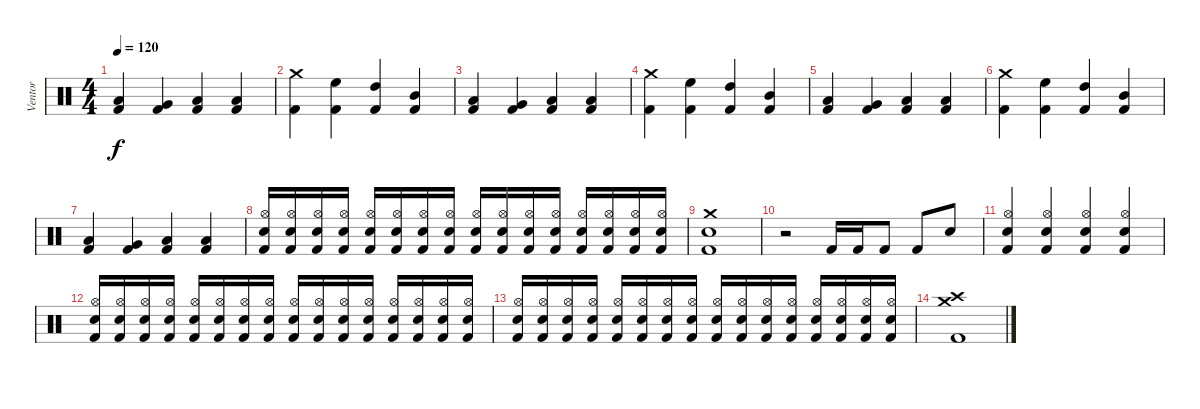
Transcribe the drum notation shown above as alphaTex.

\track ("Ventor" "Ventor") {instrument percussion}
\staff {score}
\articulation defaults
\ts (4 4)
\tempo 120
\clef neutral
\ks c
("Low Tom (hit)" "Kick (hit) 2").4{dy f} ("Very Low Tom (hit)" "Kick (hit) 2").4 ("Low Floor Tom (hit)" "Kick (hit) 2").4 ("Low Floor Tom (hit)" "Kick (hit) 2").4 |
("Crash medium (hit)" "Kick (hit) 2").4 ("High Floor Tom (hit)" "Kick (hit) 2").4 ("High Tom (hit)" "Kick (hit) 2").4 ("Mid Tom (hit)" "Kick (hit) 2").4 |
("Low Tom (hit)" "Kick (hit) 2").4 ("Very Low Tom (hit)" "Kick (hit) 2").4 ("Low Floor Tom (hit)" "Kick (hit) 2").4 ("Low Floor Tom (hit)" "Kick (hit) 2").4 |
("Crash medium (hit)" "Kick (hit) 2").4 ("High Floor Tom (hit)" "Kick (hit) 2").4 ("High Tom (hit)" "Kick (hit) 2").4 ("Mid Tom (hit)" "Kick (hit) 2").4 |
("Low Tom (hit)" "Kick (hit) 2").4 ("Very Low Tom (hit)" "Kick (hit) 2").4 ("Low Floor Tom (hit)" "Kick (hit) 2").4 ("Low Floor Tom (hit)" "Kick (hit) 2").4 |
("Crash medium (hit)" "Kick (hit) 2").4 ("High Floor Tom (hit)" "Kick (hit) 2").4 ("High Tom (hit)" "Kick (hit) 2").4 ("Mid Tom (hit)" "Kick (hit) 2").4 |
("Low Tom (hit)" "Kick (hit) 2").4 ("Very Low Tom (hit)" "Kick (hit) 2").4 ("Low Floor Tom (hit)" "Kick (hit) 2").4 ("Low Floor Tom (hit)" "Kick (hit) 2").4 |
("Hi-Hat (open)" "Snare (hit) 2" "Kick (hit) 2").16 ("Hi-Hat (open)" "Snare (hit) 2" "Kick (hit) 2").16 ("Hi-Hat (open)" "Snare (hit) 2" "Kick (hit) 2").16 ("Hi-Hat (open)" "Snare (hit) 2" "Kick (hit) 2").16 ("Hi-Hat (open)" "Snare (hit) 2" "Kick (hit) 2").16 ("Hi-Hat (open)" "Snare (hit) 2" "Kick (hit) 2").16 ("Hi-Hat (open)" "Snare (hit) 2" "Kick (hit) 2").16 ("Hi-Hat (open)" "Snare (hit) 2" "Kick (hit) 2").16 ("Hi-Hat (open)" "Snare (hit) 2" "Kick (hit) 2").16 ("Hi-Hat (open)" "Snare (hit) 2" "Kick (hit) 2").16 ("Hi-Hat (open)" "Snare (hit) 2" "Kick (hit) 2").16 ("Hi-Hat (open)" "Snare (hit) 2" "Kick (hit) 2").16 ("Hi-Hat (open)" "Snare (hit) 2" "Kick (hit) 2").16 ("Hi-Hat (open)" "Snare (hit) 2" "Kick (hit) 2").16 ("Hi-Hat (open)" "Snare (hit) 2" "Kick (hit) 2").16 ("Hi-Hat (open)" "Snare (hit) 2" "Kick (hit) 2").16 |
("Crash medium (hit)" "Snare (hit) 2" "Kick (hit) 2").1 |
r.2 "Kick (hit) 2".16 "Kick (hit) 2".16 "Kick (hit) 2".8 "Kick (hit) 2".8 "Snare (hit) 2".8 |
("Hi-Hat (open)" "Snare (hit) 2" "Kick (hit) 2").4 ("Hi-Hat (open)" "Snare (hit) 2" "Kick (hit) 2").4 ("Hi-Hat (open)" "Snare (hit) 2" "Kick (hit) 2").4 ("Hi-Hat (open)" "Snare (hit) 2" "Kick (hit) 2").4 |
("Hi-Hat (open)" "Snare (hit) 2" "Kick (hit) 2").16 ("Hi-Hat (open)" "Snare (hit) 2" "Kick (hit) 2").16 ("Hi-Hat (open)" "Snare (hit) 2" "Kick (hit) 2").16 ("Hi-Hat (open)" "Snare (hit) 2" "Kick (hit) 2").16 ("Hi-Hat (open)" "Snare (hit) 2" "Kick (hit) 2").16 ("Hi-Hat (open)" "Snare (hit) 2" "Kick (hit) 2").16 ("Hi-Hat (open)" "Snare (hit) 2" "Kick (hit) 2").16 ("Hi-Hat (open)" "Snare (hit) 2" "Kick (hit) 2").16 ("Hi-Hat (open)" "Snare (hit) 2" "Kick (hit) 2").16 ("Hi-Hat (open)" "Snare (hit) 2" "Kick (hit) 2").16 ("Hi-Hat (open)" "Snare (hit) 2" "Kick (hit) 2").16 ("Hi-Hat (open)" "Snare (hit) 2" "Kick (hit) 2").16 ("Hi-Hat (open)" "Snare (hit) 2" "Kick (hit) 2").16 ("Hi-Hat (open)" "Snare (hit) 2" "Kick (hit) 2").16 ("Hi-Hat (open)" "Snare (hit) 2" "Kick (hit) 2").16 ("Hi-Hat (open)" "Snare (hit) 2" "Kick (hit) 2").16 |
("Hi-Hat (open)" "Snare (hit) 2" "Kick (hit) 2").16 ("Hi-Hat (open)" "Snare (hit) 2" "Kick (hit) 2").16 ("Hi-Hat (open)" "Snare (hit) 2" "Kick (hit) 2").16 ("Hi-Hat (open)" "Snare (hit) 2" "Kick (hit) 2").16 ("Hi-Hat (open)" "Snare (hit) 2" "Kick (hit) 2").16 ("Hi-Hat (open)" "Snare (hit) 2" "Kick (hit) 2").16 ("Hi-Hat (open)" "Snare (hit) 2" "Kick (hit) 2").16 ("Hi-Hat (open)" "Snare (hit) 2" "Kick (hit) 2").16 ("Hi-Hat (open)" "Snare (hit) 2" "Kick (hit) 2").16 ("Hi-Hat (open)" "Snare (hit) 2" "Kick (hit) 2").16 ("Hi-Hat (open)" "Snare (hit) 2" "Kick (hit) 2").16 ("Hi-Hat (open)" "Snare (hit) 2" "Kick (hit) 2").16 ("Hi-Hat (open)" "Snare (hit) 2" "Kick (hit) 2").16 ("Hi-Hat (open)" "Snare (hit) 2" "Kick (hit) 2").16 ("Hi-Hat (open)" "Snare (hit) 2" "Kick (hit) 2").16 ("Hi-Hat (open)" "Snare (hit) 2" "Kick (hit) 2").16 |
("Crash high (hit)" "Crash medium (hit)" "Kick (hit) 2").1
